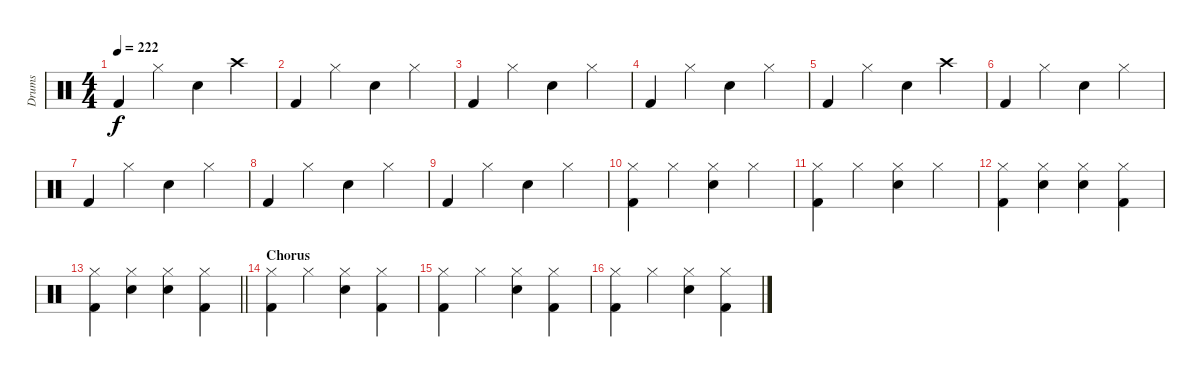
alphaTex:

\track ("Drums" "Drums") {instrument percussion}
\staff {score}
\articulation defaults
\ts (4 4)
\tempo 222
\clef neutral
\ks c "Kick (hit) 2".4{dy f} "Hi-Hat (closed)".4 "Electric Snare (hit)".4 "Crash high (hit)".4
|
"Kick (hit) 2".4 "Hi-Hat (closed)".4 "Electric Snare (hit)".4 "Hi-Hat (closed)".4 |
"Kick (hit) 2".4 "Hi-Hat (closed)".4 "Electric Snare (hit)".4 "Hi-Hat (closed)".4 |
"Kick (hit) 2".4 "Hi-Hat (closed)".4 "Electric Snare (hit)".4 "Hi-Hat (closed)".4 |
"Kick (hit) 2".4 "Hi-Hat (closed)".4 "Electric Snare (hit)".4 "Crash high (hit)".4 |
"Kick (hit) 2".4 "Hi-Hat (closed)".4 "Electric Snare (hit)".4 "Hi-Hat (closed)".4 |
"Kick (hit) 2".4 "Hi-Hat (closed)".4 "Electric Snare (hit)".4 "Hi-Hat (closed)".4 |
"Kick (hit) 2".4 "Hi-Hat (closed)".4 "Electric Snare (hit)".4 "Hi-Hat (closed)".4 |
"Kick (hit) 2".4 "Hi-Hat (closed)".4 "Electric Snare (hit)".4 "Hi-Hat (closed)".4 |
("Hi-Hat (closed)" "Kick (hit) 2").4 "Hi-Hat (closed)".4 ("Hi-Hat (closed)" "Electric Snare (hit)").4 "Hi-Hat (closed)".4 |
("Hi-Hat (closed)" "Kick (hit) 2").4 "Hi-Hat (closed)".4 ("Hi-Hat (closed)" "Electric Snare (hit)").4 "Hi-Hat (closed)".4 |
("Hi-Hat (closed)" "Kick (hit) 2").4 ("Hi-Hat (closed)" "Electric Snare (hit)").4 ("Hi-Hat (closed)" "Electric Snare (hit)").4 ("Hi-Hat (closed)" "Kick (hit) 2").4 |
\barLineRight lightlight
("Hi-Hat (closed)" "Kick (hit) 2").4 ("Hi-Hat (closed)" "Electric Snare (hit)").4 ("Hi-Hat (closed)" "Electric Snare (hit)").4 ("Hi-Hat (closed)" "Kick (hit) 2").4 |
\section ("" "Chorus")
("Hi-Hat (closed)" "Kick (hit) 2").4{volume 16} "Hi-Hat (closed)".4 ("Hi-Hat (closed)" "Electric Snare (hit)").4 ("Hi-Hat (closed)" "Kick (hit) 2").4 |
("Hi-Hat (closed)" "Kick (hit) 2").4 "Hi-Hat (closed)".4 ("Hi-Hat (closed)" "Electric Snare (hit)").4 ("Hi-Hat (closed)" "Kick (hit) 2").4 |
("Hi-Hat (closed)" "Kick (hit) 2").4 "Hi-Hat (closed)".4 ("Hi-Hat (closed)" "Electric Snare (hit)").4 ("Hi-Hat (closed)" "Kick (hit) 2").4
